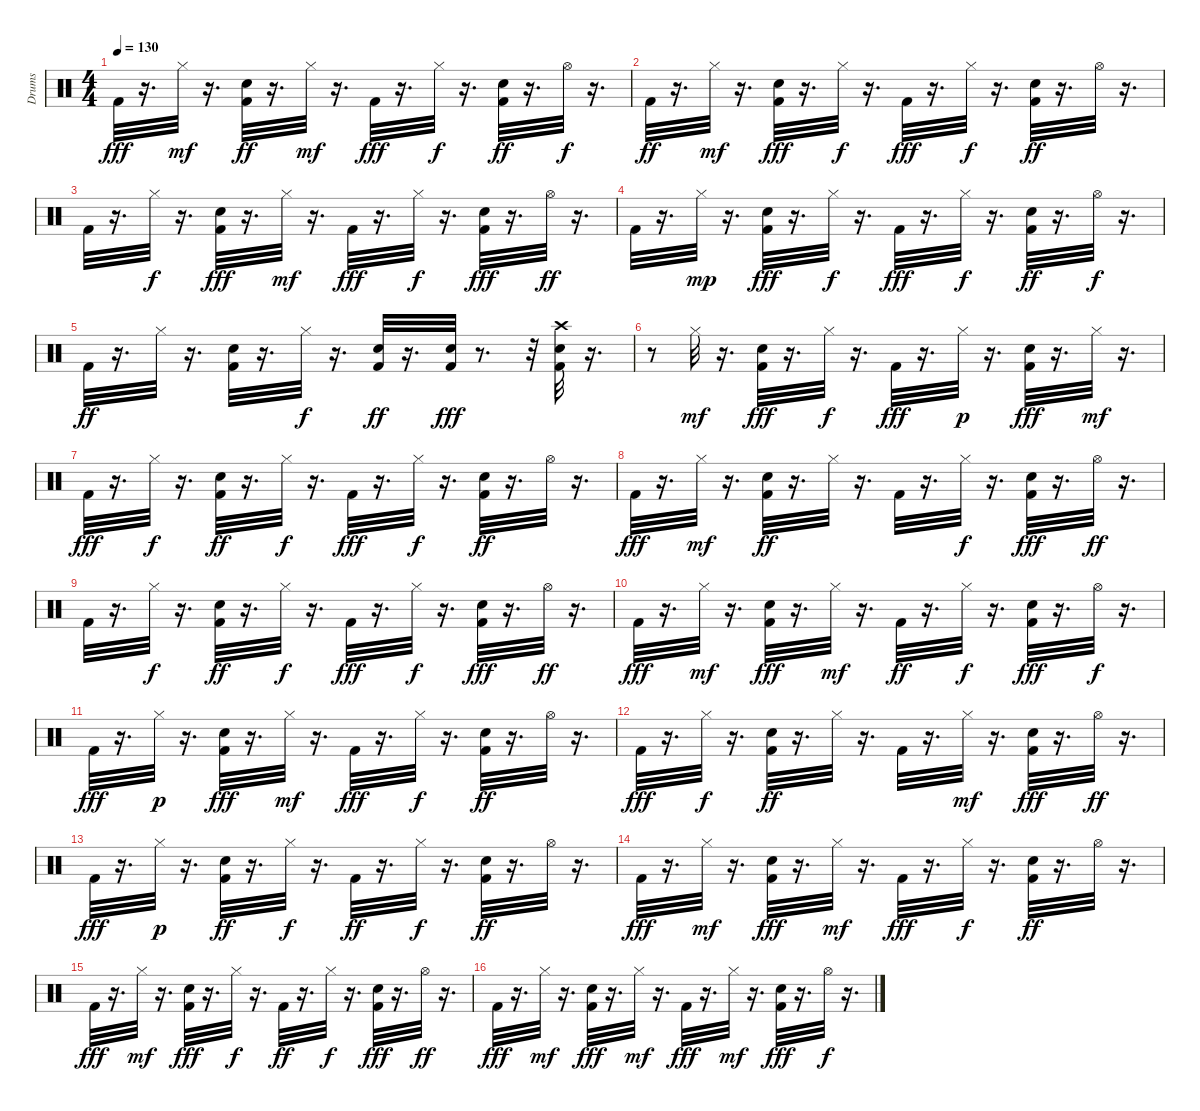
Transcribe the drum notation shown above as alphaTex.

\track ("Drums               " "Drums     ") {instrument percussion}
\staff {score}
\articulation defaults
\ts (4 4)
\tempo 130
\clef neutral
\ks c "Kick (hit) 2".32{dy fff}
r.16{d} "Hi-Hat (closed)".32{dy mf} r.16{d} ("Kick (hit) 2" "Snare (hit) 2").32{dy ff} r.16{d} "Hi-Hat (closed)".32{dy mf} r.16{d} "Kick (hit) 2".32{dy fff} r.16{d} "Hi-Hat (closed)".32{dy f} r.16{d} ("Kick (hit) 2" "Snare (hit) 2").32{dy ff} r.16{d} "Hi-Hat (open)".32{dy f} r.16{d} |
"Kick (hit) 2".32{dy ff} r.16{d} "Hi-Hat (closed)".32{dy mf} r.16{d} ("Kick (hit) 2" "Snare (hit) 2").32{dy fff} r.16{d} "Hi-Hat (closed)".32{dy f} r.16{d} "Kick (hit) 2".32{dy fff} r.16{d} "Hi-Hat (closed)".32{dy f} r.16{d} ("Kick (hit) 2" "Snare (hit) 2").32{dy ff} r.16{d} "Hi-Hat (open)".32 r.16{d} |
"Kick (hit) 2".32 r.16{d} "Hi-Hat (closed)".32{dy f} r.16{d} ("Kick (hit) 2" "Snare (hit) 2").32{dy fff} r.16{d} "Hi-Hat (closed)".32{dy mf} r.16{d} "Kick (hit) 2".32{dy fff} r.16{d} "Hi-Hat (closed)".32{dy f} r.16{d} ("Kick (hit) 2" "Snare (hit) 2").32{dy fff} r.16{d} "Hi-Hat (open)".32{dy ff} r.16{d} |
"Kick (hit) 2".32 r.16{d} "Hi-Hat (closed)".32{dy mp} r.16{d} ("Kick (hit) 2" "Snare (hit) 2").32{dy fff} r.16{d} "Hi-Hat (closed)".32{dy f} r.16{d} "Kick (hit) 2".32{dy fff} r.16{d} "Hi-Hat (closed)".32{dy f} r.16{d} ("Kick (hit) 2" "Snare (hit) 2").32{dy ff} r.16{d} "Hi-Hat (open)".32{dy f} r.16{d} |
"Kick (hit) 2".32{dy ff} r.16{d} "Hi-Hat (closed)".32 r.16{d} ("Kick (hit) 2" "Snare (hit) 2").32 r.16{d} "Hi-Hat (closed)".32{dy f} r.16{d} ("Kick (hit) 2" "Snare (hit) 2").32{dy ff} r.16{d} ("Kick (hit) 2" "Snare (hit) 2").32{dy fff} r.8{d} r.32 ("Kick (hit) 2" "Snare (hit) 2" "Crash high (hit)").32 r.16{d} |
r.8 "Hi-Hat (closed)".32{dy mf} r.16{d} ("Kick (hit) 2" "Snare (hit) 2").32{dy fff} r.16{d} "Hi-Hat (closed)".32{dy f} r.16{d} "Kick (hit) 2".32{dy fff} r.16{d} "Hi-Hat (closed)".32{dy p} r.16{d} ("Kick (hit) 2" "Snare (hit) 2").32{dy fff} r.16{d} "Hi-Hat (closed)".32{dy mf} r.16{d} |
"Kick (hit) 2".32{dy fff} r.16{d} "Hi-Hat (closed)".32{dy f} r.16{d} ("Kick (hit) 2" "Snare (hit) 2").32{dy ff} r.16{d} "Hi-Hat (closed)".32{dy f} r.16{d} "Kick (hit) 2".32{dy fff} r.16{d} "Hi-Hat (closed)".32{dy f} r.16{d} ("Kick (hit) 2" "Snare (hit) 2").32{dy ff} r.16{d} "Hi-Hat (open)".32 r.16{d} |
"Kick (hit) 2".32{dy fff} r.16{d} "Hi-Hat (closed)".32{dy mf} r.16{d} ("Kick (hit) 2" "Snare (hit) 2").32{dy ff} r.16{d} "Hi-Hat (closed)".32 r.16{d} "Kick (hit) 2".32 r.16{d} "Hi-Hat (closed)".32{dy f} r.16{d} ("Kick (hit) 2" "Snare (hit) 2").32{dy fff} r.16{d} "Hi-Hat (open)".32{dy ff} r.16{d} |
"Kick (hit) 2".32 r.16{d} "Hi-Hat (closed)".32{dy f} r.16{d} ("Kick (hit) 2" "Snare (hit) 2").32{dy ff} r.16{d} "Hi-Hat (closed)".32{dy f} r.16{d} "Kick (hit) 2".32{dy fff} r.16{d} "Hi-Hat (closed)".32{dy f} r.16{d} ("Kick (hit) 2" "Snare (hit) 2").32{dy fff} r.16{d} "Hi-Hat (open)".32{dy ff} r.16{d} |
"Kick (hit) 2".32{dy fff} r.16{d} "Hi-Hat (closed)".32{dy mf} r.16{d} ("Kick (hit) 2" "Snare (hit) 2").32{dy fff} r.16{d} "Hi-Hat (closed)".32{dy mf} r.16{d} "Kick (hit) 2".32{dy ff} r.16{d} "Hi-Hat (closed)".32{dy f} r.16{d} ("Kick (hit) 2" "Snare (hit) 2").32{dy fff} r.16{d} "Hi-Hat (open)".32{dy f} r.16{d} |
"Kick (hit) 2".32{dy fff} r.16{d} "Hi-Hat (closed)".32{dy p} r.16{d} ("Kick (hit) 2" "Snare (hit) 2").32{dy fff} r.16{d} "Hi-Hat (closed)".32{dy mf} r.16{d} "Kick (hit) 2".32{dy fff} r.16{d} "Hi-Hat (closed)".32{dy f} r.16{d} ("Kick (hit) 2" "Snare (hit) 2").32{dy ff} r.16{d} "Hi-Hat (open)".32 r.16{d} |
"Kick (hit) 2".32{dy fff} r.16{d} "Hi-Hat (closed)".32{dy f} r.16{d} ("Kick (hit) 2" "Snare (hit) 2").32{dy ff} r.16{d} "Hi-Hat (closed)".32 r.16{d} "Kick (hit) 2".32 r.16{d} "Hi-Hat (closed)".32{dy mf} r.16{d} ("Kick (hit) 2" "Snare (hit) 2").32{dy fff} r.16{d} "Hi-Hat (open)".32{dy ff} r.16{d} |
"Kick (hit) 2".32{dy fff} r.16{d} "Hi-Hat (closed)".32{dy p} r.16{d} ("Kick (hit) 2" "Snare (hit) 2").32{dy ff} r.16{d} "Hi-Hat (closed)".32{dy f} r.16{d} "Kick (hit) 2".32{dy ff} r.16{d} "Hi-Hat (closed)".32{dy f} r.16{d} ("Kick (hit) 2" "Snare (hit) 2").32{dy ff} r.16{d} "Hi-Hat (open)".32 r.16{d} |
"Kick (hit) 2".32{dy fff} r.16{d} "Hi-Hat (closed)".32{dy mf} r.16{d} ("Kick (hit) 2" "Snare (hit) 2").32{dy fff} r.16{d} "Hi-Hat (closed)".32{dy mf} r.16{d} "Kick (hit) 2".32{dy fff} r.16{d} "Hi-Hat (closed)".32{dy f} r.16{d} ("Kick (hit) 2" "Snare (hit) 2").32{dy ff} r.16{d} "Hi-Hat (open)".32 r.16{d} |
"Kick (hit) 2".32{dy fff} r.16{d} "Hi-Hat (closed)".32{dy mf} r.16{d} ("Kick (hit) 2" "Snare (hit) 2").32{dy fff} r.16{d} "Hi-Hat (closed)".32{dy f} r.16{d} "Kick (hit) 2".32{dy ff} r.16{d} "Hi-Hat (closed)".32{dy f} r.16{d} ("Kick (hit) 2" "Snare (hit) 2").32{dy fff} r.16{d} "Hi-Hat (open)".32{dy ff} r.16{d} |
"Kick (hit) 2".32{dy fff} r.16{d} "Hi-Hat (closed)".32{dy mf} r.16{d} ("Kick (hit) 2" "Snare (hit) 2").32{dy fff} r.16{d} "Hi-Hat (closed)".32{dy mf} r.16{d} "Kick (hit) 2".32{dy fff} r.16{d} "Hi-Hat (closed)".32{dy mf} r.16{d} ("Kick (hit) 2" "Snare (hit) 2").32{dy fff} r.16{d} "Hi-Hat (open)".32{dy f} r.16{d}
